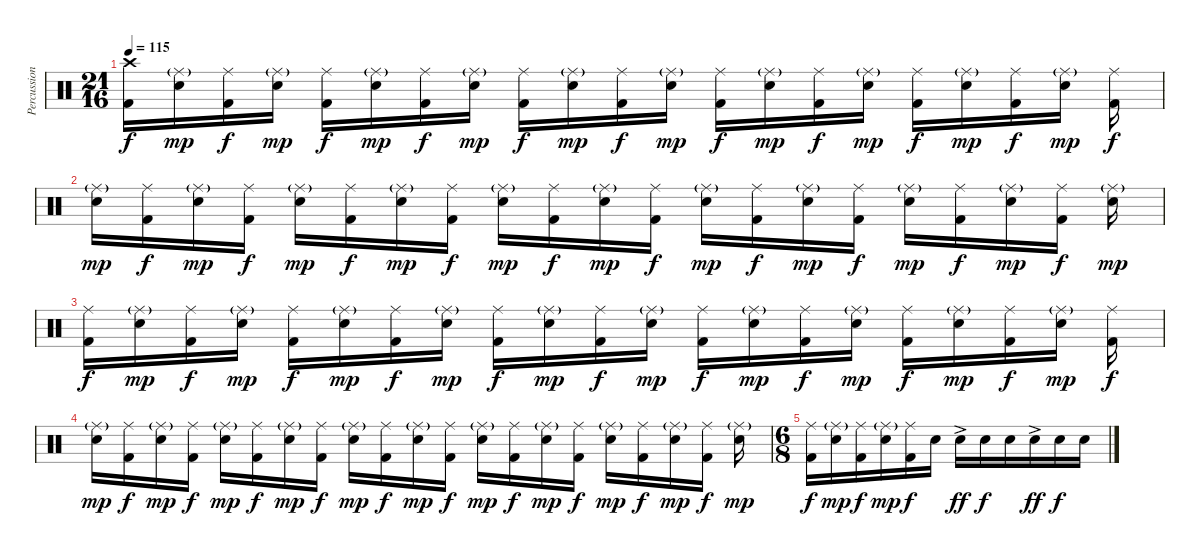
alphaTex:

\track ("Percussion" "Percussion") {instrument percussion}
\staff {score}
\articulation defaults
\ts (21 16)
\tempo 115
\clef neutral
\ks c
("Crash high (hit)" "Kick (hit) 2").16{dy f} ("Ride (middle)"{g} "Electric Snare (hit)").16{dy mp} ("Ride (middle)" "Kick (hit) 2").16{dy f} ("Ride (middle)"{g} "Electric Snare (hit)").16{dy mp} ("Ride (middle)" "Kick (hit) 2").16{dy f} ("Ride (middle)"{g} "Electric Snare (hit)").16{dy mp} ("Ride (middle)" "Kick (hit) 2").16{dy f} ("Ride (middle)"{g} "Electric Snare (hit)").16{dy mp} ("Ride (middle)" "Kick (hit) 2").16{dy f} ("Ride (middle)"{g} "Electric Snare (hit)").16{dy mp} ("Ride (middle)" "Kick (hit) 2").16{dy f} ("Ride (middle)"{g} "Electric Snare (hit)").16{dy mp} ("Ride (middle)" "Kick (hit) 2").16{dy f} ("Ride (middle)"{g} "Electric Snare (hit)").16{dy mp} ("Ride (middle)" "Kick (hit) 2").16{dy f} ("Ride (middle)"{g} "Electric Snare (hit)").16{dy mp} ("Ride (middle)" "Kick (hit) 2").16{dy f} ("Ride (middle)"{g} "Electric Snare (hit)").16{dy mp} ("Ride (middle)" "Kick (hit) 2").16{dy f} ("Ride (middle)"{g} "Electric Snare (hit)").16{dy mp} ("Ride (middle)" "Kick (hit) 2").16{dy f} |
("Ride (middle)"{g} "Electric Snare (hit)").16{dy mp} ("Ride (middle)" "Kick (hit) 2").16{dy f} ("Ride (middle)"{g} "Electric Snare (hit)").16{dy mp} ("Ride (middle)" "Kick (hit) 2").16{dy f} ("Ride (middle)"{g} "Electric Snare (hit)").16{dy mp} ("Ride (middle)" "Kick (hit) 2").16{dy f} ("Ride (middle)"{g} "Electric Snare (hit)").16{dy mp} ("Ride (middle)" "Kick (hit) 2").16{dy f} ("Ride (middle)"{g} "Electric Snare (hit)").16{dy mp} ("Ride (middle)" "Kick (hit) 2").16{dy f} ("Ride (middle)"{g} "Electric Snare (hit)").16{dy mp} ("Ride (middle)" "Kick (hit) 2").16{dy f} ("Ride (middle)"{g} "Electric Snare (hit)").16{dy mp} ("Ride (middle)" "Kick (hit) 2").16{dy f} ("Ride (middle)"{g} "Electric Snare (hit)").16{dy mp} ("Ride (middle)" "Kick (hit) 2").16{dy f} ("Ride (middle)"{g} "Electric Snare (hit)").16{dy mp} ("Ride (middle)" "Kick (hit) 2").16{dy f} ("Ride (middle)"{g} "Electric Snare (hit)").16{dy mp} ("Ride (middle)" "Kick (hit) 2").16{dy f} ("Ride (middle)"{g} "Electric Snare (hit)").16{dy mp} |
("Ride (middle)" "Kick (hit) 2").16{dy f} ("Ride (middle)"{g} "Electric Snare (hit)").16{dy mp} ("Ride (middle)" "Kick (hit) 2").16{dy f} ("Ride (middle)"{g} "Electric Snare (hit)").16{dy mp} ("Ride (middle)" "Kick (hit) 2").16{dy f} ("Ride (middle)"{g} "Electric Snare (hit)").16{dy mp} ("Ride (middle)" "Kick (hit) 2").16{dy f} ("Ride (middle)"{g} "Electric Snare (hit)").16{dy mp} ("Ride (middle)" "Kick (hit) 2").16{dy f} ("Ride (middle)"{g} "Electric Snare (hit)").16{dy mp} ("Ride (middle)" "Kick (hit) 2").16{dy f} ("Ride (middle)"{g} "Electric Snare (hit)").16{dy mp} ("Ride (middle)" "Kick (hit) 2").16{dy f} ("Ride (middle)"{g} "Electric Snare (hit)").16{dy mp} ("Ride (middle)" "Kick (hit) 2").16{dy f} ("Ride (middle)"{g} "Electric Snare (hit)").16{dy mp} ("Ride (middle)" "Kick (hit) 2").16{dy f} ("Ride (middle)"{g} "Electric Snare (hit)").16{dy mp} ("Ride (middle)" "Kick (hit) 2").16{dy f} ("Ride (middle)"{g} "Electric Snare (hit)").16{dy mp} ("Ride (middle)" "Kick (hit) 2").16{dy f} |
("Ride (middle)"{g} "Electric Snare (hit)").16{dy mp} ("Ride (middle)" "Kick (hit) 2").16{dy f} ("Ride (middle)"{g} "Electric Snare (hit)").16{dy mp} ("Ride (middle)" "Kick (hit) 2").16{dy f} ("Ride (middle)"{g} "Electric Snare (hit)").16{dy mp} ("Ride (middle)" "Kick (hit) 2").16{dy f} ("Ride (middle)"{g} "Electric Snare (hit)").16{dy mp} ("Ride (middle)" "Kick (hit) 2").16{dy f} ("Ride (middle)"{g} "Electric Snare (hit)").16{dy mp} ("Ride (middle)" "Kick (hit) 2").16{dy f} ("Ride (middle)"{g} "Electric Snare (hit)").16{dy mp} ("Ride (middle)" "Kick (hit) 2").16{dy f} ("Ride (middle)"{g} "Electric Snare (hit)").16{dy mp} ("Ride (middle)" "Kick (hit) 2").16{dy f} ("Ride (middle)"{g} "Electric Snare (hit)").16{dy mp} ("Ride (middle)" "Kick (hit) 2").16{dy f} ("Ride (middle)"{g} "Electric Snare (hit)").16{dy mp} ("Ride (middle)" "Kick (hit) 2").16{dy f} ("Ride (middle)"{g} "Electric Snare (hit)").16{dy mp} ("Ride (middle)" "Kick (hit) 2").16{dy f} ("Ride (middle)"{g} "Electric Snare (hit)").16{dy mp} |
\ts (6 8)
("Ride (middle)" "Kick (hit) 2").16{dy f} ("Ride (middle)"{g} "Electric Snare (hit)").16{dy mp} ("Ride (middle)" "Kick (hit) 2").16{dy f} ("Ride (middle)"{g} "Electric Snare (hit)").16{dy mp} ("Ride (middle)" "Kick (hit) 2").16{dy f} "Electric Snare (hit)".16 "Electric Snare (hit)"{ac}.16{dy ff} "Electric Snare (hit)".16{dy f} "Electric Snare (hit)".16 "Electric Snare (hit)"{ac}.16{dy ff} "Electric Snare (hit)".16{dy f} "Electric Snare (hit)".16
